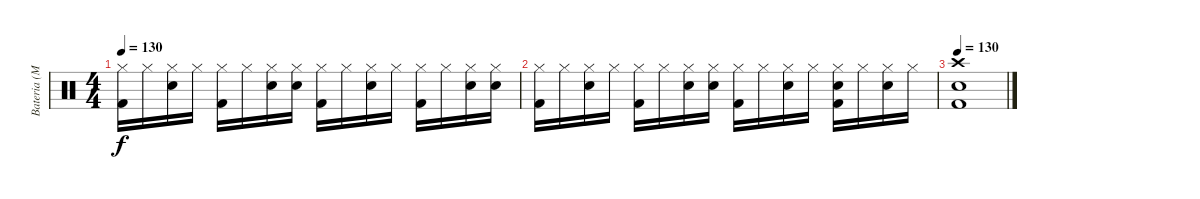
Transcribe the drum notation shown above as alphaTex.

\track ("Bateria (Marcelo)" "Bateria (M") {instrument percussion}
\staff {score}
\articulation defaults
\ts (4 4)
\tempo 130
\clef neutral
\ks c
("Kick (hit) 2" "Hi-Hat (closed)").16{dy f volume 13} "Hi-Hat (closed)".16 ("Snare (hit) 2" "Hi-Hat (closed)").16 "Hi-Hat (closed)".16 ("Kick (hit) 2" "Hi-Hat (closed)").16 "Hi-Hat (closed)".16 ("Snare (hit) 2" "Hi-Hat (closed)").16 ("Snare (hit) 2" "Hi-Hat (closed)").16 ("Kick (hit) 2" "Hi-Hat (closed)").16 "Hi-Hat (closed)".16 ("Snare (hit) 2" "Hi-Hat (closed)").16 "Hi-Hat (closed)".16 ("Kick (hit) 2" "Hi-Hat (closed)").16 "Hi-Hat (closed)".16 ("Snare (hit) 2" "Hi-Hat (closed)").16 ("Snare (hit) 2" "Hi-Hat (closed)").16 |
("Kick (hit) 2" "Hi-Hat (closed)").16 "Hi-Hat (closed)".16 ("Snare (hit) 2" "Hi-Hat (closed)").16 "Hi-Hat (closed)".16 ("Kick (hit) 2" "Hi-Hat (closed)").16 "Hi-Hat (closed)".16 ("Snare (hit) 2" "Hi-Hat (closed)").16 ("Snare (hit) 2" "Hi-Hat (closed)").16 ("Kick (hit) 2" "Hi-Hat (closed)").16 "Hi-Hat (closed)".16 ("Snare (hit) 2" "Hi-Hat (closed)").16 "Hi-Hat (closed)".16 ("Kick (hit) 2" "Hi-Hat (closed)" "Snare (hit) 2").16 "Hi-Hat (closed)".16 ("Snare (hit) 2" "Hi-Hat (closed)").16 "Hi-Hat (closed)".16 |
\tempo 130
("Crash high (hit)" "Snare (hit) 2" "Kick (hit) 2").1
